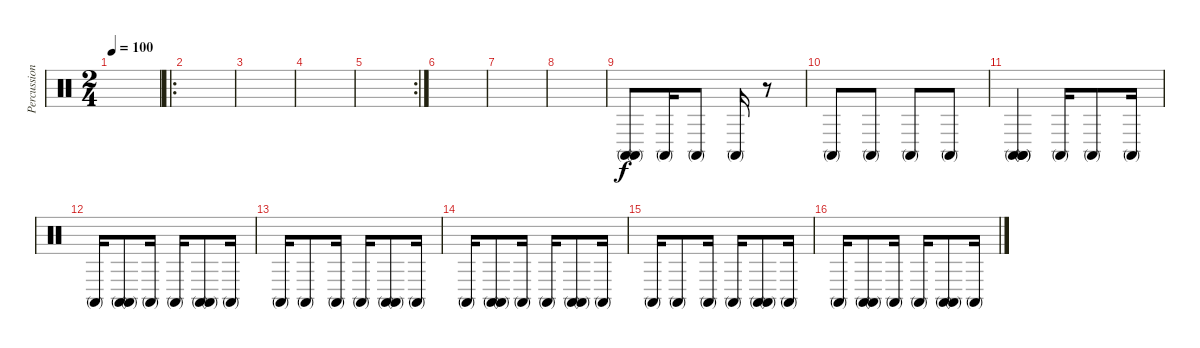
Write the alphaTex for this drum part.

\track ("Percussion" "Percussion") {instrument percussion}
\staff {score}
\articulation defaults
\ts (2 4)
\tempo 100
\clef neutral
\ks c
|
\ro
|
|
|
\rc 2
|
|
|
|
("Conga high (mute)" "Conga high (mute)").8 "Conga high (mute)".16 "Conga high (mute)".8 "Conga high (mute)".16 r.8 |
"Conga high (mute)".8 "Conga high (mute)".8 "Conga high (mute)".8 "Conga high (mute)".8 |
("Conga high (mute)" "Conga high (mute)" "Conga high (mute)").4 "Conga high (mute)".16 "Conga high (mute)".8 "Conga high (mute)".16 |
"Conga high (mute)".16 ("Conga high (mute)" "Conga high (mute)").8 "Conga high (mute)".16 "Conga high (mute)".16 ("Conga high (mute)" "Conga high (mute)").8 "Conga high (mute)".16 |
"Conga high (mute)".16 "Conga high (mute)".8 "Conga high (mute)".16 "Conga high (mute)".16 ("Conga high (mute)" "Conga high (mute)").8 "Conga high (mute)".16 |
"Conga high (mute)".16 ("Conga high (mute)" "Conga high (mute)").8 "Conga high (mute)".16 "Conga high (mute)".16 ("Conga high (mute)" "Conga high (mute)").8 "Conga high (mute)".16 |
"Conga high (mute)".16 "Conga high (mute)".8 "Conga high (mute)".16 "Conga high (mute)".16 ("Conga high (mute)" "Conga high (mute)").8 "Conga high (mute)".16 |
"Conga high (mute)".16 ("Conga high (mute)" "Conga high (mute)").8 "Conga high (mute)".16 "Conga high (mute)".16 ("Conga high (mute)" "Conga high (mute)").8 "Conga high (mute)".16
